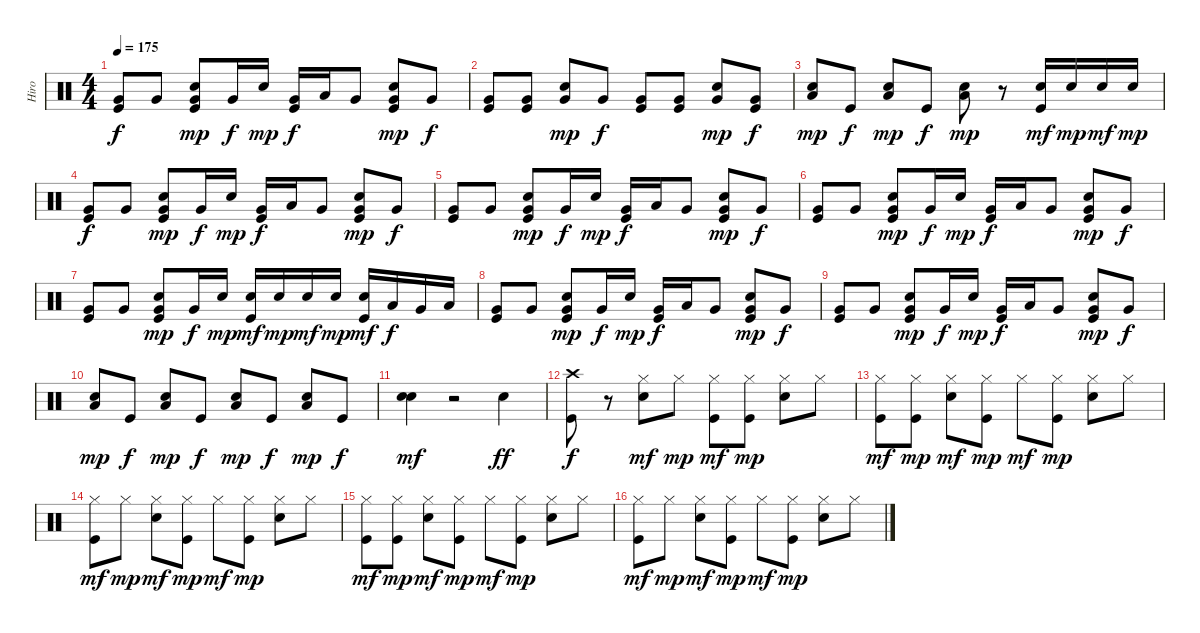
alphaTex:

\track ("Hiro" "Hiro") {instrument percussion}
\staff {score}
\articulation defaults
\ts (4 4)
\tempo 175
\clef neutral
\ks c
("Kick (hit)" "Very Low Tom (hit)").8{dy f} "Very Low Tom (hit)".8 ("Very Low Tom (hit)" "Electric Snare (hit)" "Kick (hit)").8{dy mp} "Very Low Tom (hit)".16{dy f} "Electric Snare (hit)".16{dy mp} ("Very Low Tom (hit)" "Kick (hit)").16{dy f} "Low Tom (hit)".16 "Very Low Tom (hit)".8 ("Very Low Tom (hit)" "Electric Snare (hit)" "Kick (hit)").8{dy mp} "Very Low Tom (hit)".8{dy f} |
("Kick (hit)" "Very Low Tom (hit)").8 ("Kick (hit)" "Very Low Tom (hit)").8 ("Very Low Tom (hit)" "Electric Snare (hit)").8{dy mp} "Very Low Tom (hit)".8{dy f} ("Kick (hit)" "Very Low Tom (hit)").8 ("Kick (hit)" "Very Low Tom (hit)").8 ("Very Low Tom (hit)" "Electric Snare (hit)").8{dy mp} ("Kick (hit)" "Very Low Tom (hit)").8{dy f} |
("Low Floor Tom (hit)" "Electric Snare (hit)").8{dy mp} "Kick (hit)".8{dy f} ("Low Floor Tom (hit)" "Electric Snare (hit)").8{dy mp} "Kick (hit)".8{dy f} ("Low Floor Tom (hit)" "Electric Snare (hit)").8{dy mp} r.8 ("Electric Snare (hit)" "Kick (hit)").16{dy mf} "Electric Snare (hit)".16{dy mp} "Electric Snare (hit)".16{dy mf} "Electric Snare (hit)".16{dy mp} |
("Kick (hit)" "Very Low Tom (hit)").8{dy f} "Very Low Tom (hit)".8 ("Very Low Tom (hit)" "Electric Snare (hit)" "Kick (hit)").8{dy mp} "Very Low Tom (hit)".16{dy f} "Electric Snare (hit)".16{dy mp} ("Very Low Tom (hit)" "Kick (hit)").16{dy f} "Low Tom (hit)".16 "Very Low Tom (hit)".8 ("Very Low Tom (hit)" "Electric Snare (hit)" "Kick (hit)").8{dy mp} "Very Low Tom (hit)".8{dy f} |
("Kick (hit)" "Very Low Tom (hit)").8 "Very Low Tom (hit)".8 ("Very Low Tom (hit)" "Electric Snare (hit)" "Kick (hit)").8{dy mp} "Very Low Tom (hit)".16{dy f} "Electric Snare (hit)".16{dy mp} ("Very Low Tom (hit)" "Kick (hit)").16{dy f} "Low Tom (hit)".16 "Very Low Tom (hit)".8 ("Very Low Tom (hit)" "Electric Snare (hit)" "Kick (hit)").8{dy mp} "Very Low Tom (hit)".8{dy f} |
("Kick (hit)" "Very Low Tom (hit)").8 "Very Low Tom (hit)".8 ("Very Low Tom (hit)" "Electric Snare (hit)" "Kick (hit)").8{dy mp} "Very Low Tom (hit)".16{dy f} "Electric Snare (hit)".16{dy mp} ("Very Low Tom (hit)" "Kick (hit)").16{dy f} "Low Tom (hit)".16 "Very Low Tom (hit)".8 ("Very Low Tom (hit)" "Electric Snare (hit)" "Kick (hit)").8{dy mp} "Very Low Tom (hit)".8{dy f} |
("Kick (hit)" "Very Low Tom (hit)").8 "Very Low Tom (hit)".8 ("Very Low Tom (hit)" "Electric Snare (hit)" "Kick (hit)").8{dy mp} "Very Low Tom (hit)".16{dy f} "Electric Snare (hit)".16{dy mp} ("Electric Snare (hit)" "Kick (hit)").16{dy mf} "Electric Snare (hit)".16{dy mp} "Electric Snare (hit)".16{dy mf} "Electric Snare (hit)".16{dy mp} ("Electric Snare (hit)" "Kick (hit)").16{dy mf} "Low Tom (hit)".16{dy f} "Very Low Tom (hit)".16 "Low Floor Tom (hit)".16 |
("Kick (hit)" "Very Low Tom (hit)").8 "Very Low Tom (hit)".8 ("Very Low Tom (hit)" "Electric Snare (hit)" "Kick (hit)").8{dy mp} "Very Low Tom (hit)".16{dy f} "Electric Snare (hit)".16{dy mp} ("Very Low Tom (hit)" "Kick (hit)").16{dy f} "Low Tom (hit)".16 "Very Low Tom (hit)".8 ("Very Low Tom (hit)" "Electric Snare (hit)" "Kick (hit)").8{dy mp} "Very Low Tom (hit)".8{dy f} |
("Kick (hit)" "Very Low Tom (hit)").8 "Very Low Tom (hit)".8 ("Very Low Tom (hit)" "Electric Snare (hit)" "Kick (hit)").8{dy mp} "Very Low Tom (hit)".16{dy f} "Electric Snare (hit)".16{dy mp} ("Very Low Tom (hit)" "Kick (hit)").16{dy f} "Low Tom (hit)".16 "Very Low Tom (hit)".8 ("Very Low Tom (hit)" "Electric Snare (hit)" "Kick (hit)").8{dy mp} "Very Low Tom (hit)".8{dy f} |
("Low Floor Tom (hit)" "Electric Snare (hit)").8{dy mp} "Kick (hit)".8{dy f} ("Low Floor Tom (hit)" "Electric Snare (hit)").8{dy mp} "Kick (hit)".8{dy f} ("Low Floor Tom (hit)" "Electric Snare (hit)").8{dy mp} "Kick (hit)".8{dy f} ("Low Floor Tom (hit)" "Electric Snare (hit)").8{dy mp} "Kick (hit)".8{dy f} |
("Electric Snare (hit)" "Electric Snare (hit)").4{dy mf} r.2 "Electric Snare (hit)".4{dy ff} |
("Crash high (hit)" "Kick (hit)").8{dy f} r.8 ("Hi-Hat (closed)" "Electric Snare (hit)").8{dy mf} "Hi-Hat (closed)".8{dy mp} ("Hi-Hat (closed)" "Kick (hit)").8{dy mf} ("Hi-Hat (closed)" "Kick (hit)").8{dy mp} ("Hi-Hat (closed)" "Electric Snare (hit)").8 "Hi-Hat (closed)".8 |
("Hi-Hat (closed)" "Kick (hit)").8{dy mf} ("Hi-Hat (closed)" "Kick (hit)").8{dy mp} ("Hi-Hat (closed)" "Electric Snare (hit)").8{dy mf} ("Hi-Hat (closed)" "Kick (hit)").8{dy mp} "Hi-Hat (closed)".8{dy mf} ("Hi-Hat (closed)" "Kick (hit)").8{dy mp} ("Hi-Hat (closed)" "Electric Snare (hit)").8 "Hi-Hat (closed)".8 |
("Hi-Hat (closed)" "Kick (hit)").8{dy mf} "Hi-Hat (closed)".8{dy mp} ("Hi-Hat (closed)" "Electric Snare (hit)").8{dy mf} ("Hi-Hat (closed)" "Kick (hit)").8{dy mp} "Hi-Hat (closed)".8{dy mf} ("Hi-Hat (closed)" "Kick (hit)").8{dy mp} ("Hi-Hat (closed)" "Electric Snare (hit)").8 "Hi-Hat (closed)".8 |
("Hi-Hat (closed)" "Kick (hit)").8{dy mf} ("Hi-Hat (closed)" "Kick (hit)").8{dy mp} ("Hi-Hat (closed)" "Electric Snare (hit)").8{dy mf} ("Hi-Hat (closed)" "Kick (hit)").8{dy mp} "Hi-Hat (closed)".8{dy mf} ("Hi-Hat (closed)" "Kick (hit)").8{dy mp} ("Hi-Hat (closed)" "Electric Snare (hit)").8 "Hi-Hat (closed)".8 |
("Hi-Hat (closed)" "Kick (hit)").8{dy mf} "Hi-Hat (closed)".8{dy mp} ("Hi-Hat (closed)" "Electric Snare (hit)").8{dy mf} ("Hi-Hat (closed)" "Kick (hit)").8{dy mp} "Hi-Hat (closed)".8{dy mf} ("Hi-Hat (closed)" "Kick (hit)").8{dy mp} ("Hi-Hat (closed)" "Electric Snare (hit)").8 "Hi-Hat (closed)".8
